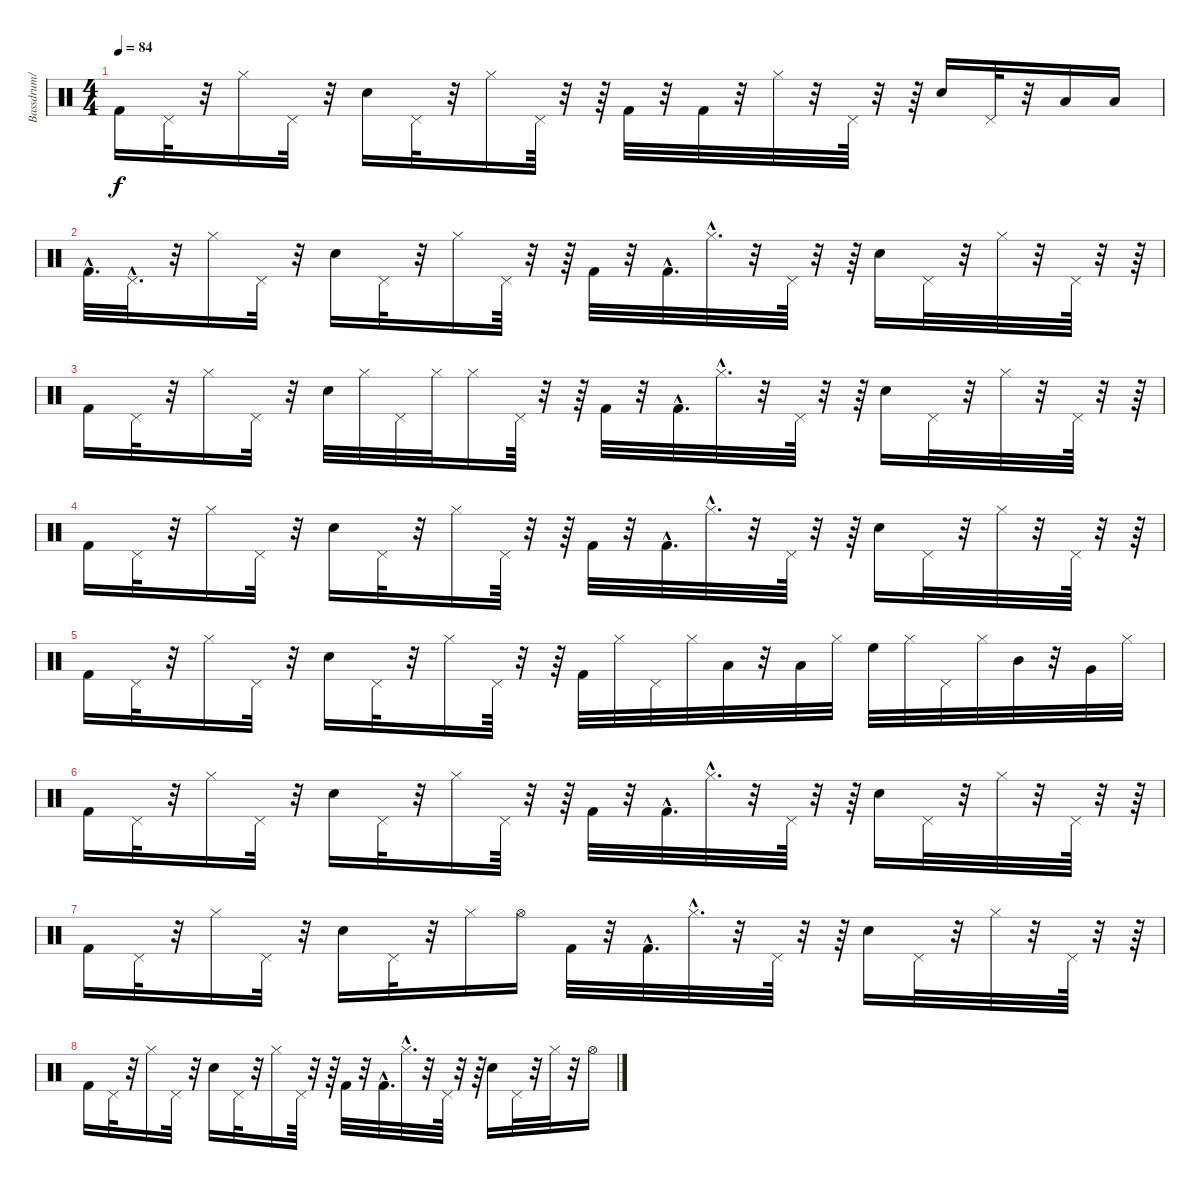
\track ("Bassdrum/" "Bassdrum/") {instrument percussion}
\staff {score}
\articulation defaults
\ts (4 4)
\tempo 84
\clef neutral
\ks c "Kick (hit) 2".16{dy f} "Pedal Hi-Hat (hit)".32
r.32 "Hi-Hat (closed)".16 "Pedal Hi-Hat (hit)".32 r.32 "Snare (hit) 2".16 "Pedal Hi-Hat (hit)".32 r.32 "Hi-Hat (closed)".16 "Pedal Hi-Hat (hit)".64 r.32 r.64 "Kick (hit) 2".32 r.32 "Kick (hit) 2".32 r.32 "Hi-Hat (closed)".32 r.32 "Pedal Hi-Hat (hit)".64 r.32 r.64 "Snare (hit) 2".16 "Pedal Hi-Hat (hit)".32 r.32 "Low Tom (hit)".16 "Low Floor Tom (hit)".16 |
"Kick (hit) 2"{hac}.32{d} "Pedal Hi-Hat (hit)"{hac}.32{d} r.32 "Hi-Hat (closed)".16 "Pedal Hi-Hat (hit)".32 r.32 "Snare (hit) 2".16 "Pedal Hi-Hat (hit)".32 r.32 "Hi-Hat (closed)".16 "Pedal Hi-Hat (hit)".64 r.32 r.64 "Kick (hit) 2".32 r.32 "Kick (hit) 2"{hac}.32{d} "Hi-Hat (closed)"{hac}.32{d} r.32 "Pedal Hi-Hat (hit)".64 r.32 r.64 "Snare (hit) 2".16 "Pedal Hi-Hat (hit)".32 r.32 "Hi-Hat (closed)".32 r.32 "Pedal Hi-Hat (hit)".64 r.32 r.64 |
"Kick (hit) 2".16 "Pedal Hi-Hat (hit)".32 r.32 "Hi-Hat (closed)".16 "Pedal Hi-Hat (hit)".32 r.32 "Snare (hit) 2".32 "Hi-Hat (closed)".32 "Pedal Hi-Hat (hit)".32 "Hi-Hat (closed)".32 "Hi-Hat (closed)".16 "Pedal Hi-Hat (hit)".64 r.32 r.64 "Kick (hit) 2".32 r.32 "Kick (hit) 2"{hac}.32{d} "Hi-Hat (closed)"{hac}.32{d} r.32 "Pedal Hi-Hat (hit)".64 r.32 r.64 "Snare (hit) 2".16 "Pedal Hi-Hat (hit)".32 r.32 "Hi-Hat (closed)".32 r.32 "Pedal Hi-Hat (hit)".64 r.32 r.64 |
"Kick (hit) 2".16 "Pedal Hi-Hat (hit)".32 r.32 "Hi-Hat (closed)".16 "Pedal Hi-Hat (hit)".32 r.32 "Snare (hit) 2".16 "Pedal Hi-Hat (hit)".32 r.32 "Hi-Hat (closed)".16 "Pedal Hi-Hat (hit)".64 r.32 r.64 "Kick (hit) 2".32 r.32 "Kick (hit) 2"{hac}.32{d} "Hi-Hat (closed)"{hac}.32{d} r.32 "Pedal Hi-Hat (hit)".64 r.32 r.64 "Snare (hit) 2".16 "Pedal Hi-Hat (hit)".32 r.32 "Hi-Hat (closed)".32 r.32 "Pedal Hi-Hat (hit)".64 r.32 r.64 |
"Kick (hit) 2".16 "Pedal Hi-Hat (hit)".32 r.32 "Hi-Hat (closed)".16 "Pedal Hi-Hat (hit)".32 r.32 "Snare (hit) 2".16 "Pedal Hi-Hat (hit)".32 r.32 "Hi-Hat (closed)".16 "Pedal Hi-Hat (hit)".64 r.32 r.64 "Kick (hit) 2".32 "Hi-Hat (closed)".32 "Pedal Hi-Hat (hit)".32 "Hi-Hat (closed)".32 "Low Floor Tom (hit)".32 r.32 "Low Tom (hit)".32 "Hi-Hat (closed)".32 "High Floor Tom (hit)".32 "Hi-Hat (closed)".32 "Pedal Hi-Hat (hit)".32 "Hi-Hat (closed)".32 "Mid Tom (hit)".32 r.32 "Very Low Tom (hit)".32 "Hi-Hat (closed)".32 |
"Kick (hit) 2".16 "Pedal Hi-Hat (hit)".32 r.32 "Hi-Hat (closed)".16 "Pedal Hi-Hat (hit)".32 r.32 "Snare (hit) 2".16 "Pedal Hi-Hat (hit)".32 r.32 "Hi-Hat (closed)".16 "Pedal Hi-Hat (hit)".64 r.32 r.64 "Kick (hit) 2".32 r.32 "Kick (hit) 2"{hac}.32{d} "Hi-Hat (closed)"{hac}.32{d} r.32 "Pedal Hi-Hat (hit)".64 r.32 r.64 "Snare (hit) 2".16 "Pedal Hi-Hat (hit)".32 r.32 "Hi-Hat (closed)".32 r.32 "Pedal Hi-Hat (hit)".64 r.32 r.64 |
"Kick (hit) 2".16 "Pedal Hi-Hat (hit)".32 r.32 "Hi-Hat (closed)".16 "Pedal Hi-Hat (hit)".32 r.32 "Snare (hit) 2".16 "Pedal Hi-Hat (hit)".32 r.32 "Hi-Hat (closed)".16 "Hi-Hat (open)".16 "Kick (hit) 2".32 r.32 "Kick (hit) 2"{hac}.32{d} "Hi-Hat (closed)"{hac}.32{d} r.32 "Pedal Hi-Hat (hit)".64 r.32 r.64 "Snare (hit) 2".16 "Pedal Hi-Hat (hit)".32 r.32 "Hi-Hat (closed)".32 r.32 "Pedal Hi-Hat (hit)".64 r.32 r.64 |
"Kick (hit) 2".16 "Pedal Hi-Hat (hit)".32 r.32 "Hi-Hat (closed)".16 "Pedal Hi-Hat (hit)".32 r.32 "Snare (hit) 2".16 "Pedal Hi-Hat (hit)".32 r.32 "Hi-Hat (closed)".16 "Pedal Hi-Hat (hit)".64 r.32 r.64 "Kick (hit) 2".32 r.32 "Kick (hit) 2"{hac}.32{d} "Hi-Hat (closed)"{hac}.32{d} r.32 "Pedal Hi-Hat (hit)".64 r.32 r.64 "Snare (hit) 2".16 "Pedal Hi-Hat (hit)".32 r.32 "Hi-Hat (closed)".32 r.32 "Hi-Hat (open)".16
